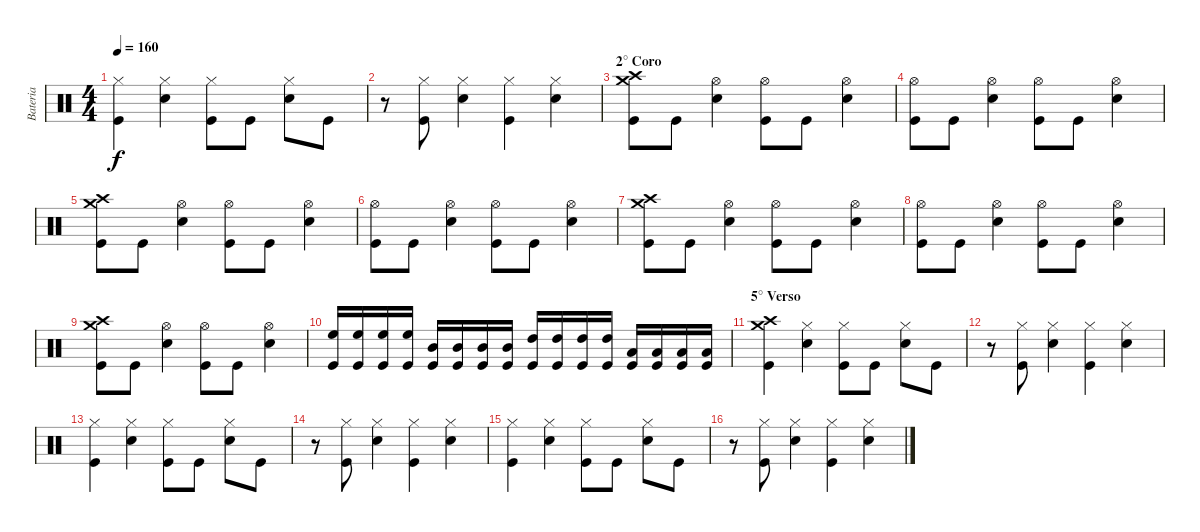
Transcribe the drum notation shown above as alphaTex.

\track ("Bateria" "Bateria") {instrument percussion}
\staff {score}
\articulation defaults
\ts (4 4)
\tempo 160
\clef neutral
\ks c
("Hi-Hat (closed)" "Kick (hit)").4{dy f} ("Hi-Hat (closed)" "Snare (hit) 2").4 ("Hi-Hat (closed)" "Kick (hit)").8 "Kick (hit)".8 ("Hi-Hat (closed)" "Snare (hit) 2").8 "Kick (hit)".8 |
r.8 ("Hi-Hat (closed)" "Kick (hit)").8 ("Hi-Hat (closed)" "Snare (hit) 2").4 ("Hi-Hat (closed)" "Kick (hit)").4 ("Hi-Hat (closed)" "Snare (hit) 2").4 |
\section ("" "2° Coro")
("Crash medium (hit)" "Crash high (hit)" "Kick (hit)").8 "Kick (hit)".8 ("Hi-Hat (open)" "Snare (hit) 2").4 ("Hi-Hat (open)" "Kick (hit)").8 "Kick (hit)".8 ("Hi-Hat (open)" "Snare (hit) 2").4 |
("Hi-Hat (open)" "Kick (hit)").8 "Kick (hit)".8 ("Hi-Hat (open)" "Snare (hit) 2").4 ("Hi-Hat (open)" "Kick (hit)").8 "Kick (hit)".8 ("Hi-Hat (open)" "Snare (hit) 2").4 |
("Crash medium (hit)" "Crash high (hit)" "Kick (hit)").8 "Kick (hit)".8 ("Hi-Hat (open)" "Snare (hit) 2").4 ("Hi-Hat (open)" "Kick (hit)").8 "Kick (hit)".8 ("Hi-Hat (open)" "Snare (hit) 2").4 |
("Hi-Hat (open)" "Kick (hit)").8 "Kick (hit)".8 ("Hi-Hat (open)" "Snare (hit) 2").4 ("Hi-Hat (open)" "Kick (hit)").8 "Kick (hit)".8 ("Hi-Hat (open)" "Snare (hit) 2").4 |
("Crash medium (hit)" "Crash high (hit)" "Kick (hit)").8 "Kick (hit)".8 ("Hi-Hat (open)" "Snare (hit) 2").4 ("Hi-Hat (open)" "Kick (hit)").8 "Kick (hit)".8 ("Hi-Hat (open)" "Snare (hit) 2").4 |
("Hi-Hat (open)" "Kick (hit)").8 "Kick (hit)".8 ("Hi-Hat (open)" "Snare (hit) 2").4 ("Hi-Hat (open)" "Kick (hit)").8 "Kick (hit)".8 ("Hi-Hat (open)" "Snare (hit) 2").4 |
("Crash medium (hit)" "Crash high (hit)" "Kick (hit)").8 "Kick (hit)".8 ("Hi-Hat (open)" "Snare (hit) 2").4 ("Hi-Hat (open)" "Kick (hit)").8 "Kick (hit)".8 ("Hi-Hat (open)" "Snare (hit) 2").4 |
("High Floor Tom (hit)" "Kick (hit)").16 ("High Floor Tom (hit)" "Kick (hit)").16 ("High Floor Tom (hit)" "Kick (hit)").16 ("High Floor Tom (hit)" "Kick (hit)").16 ("Mid Tom (hit)" "Kick (hit)").16 ("Mid Tom (hit)" "Kick (hit)").16 ("Mid Tom (hit)" "Kick (hit)").16 ("Mid Tom (hit)" "Kick (hit)").16 ("High Tom (hit)" "Kick (hit)").16 ("High Tom (hit)" "Kick (hit)").16 ("High Tom (hit)" "Kick (hit)").16 ("High Tom (hit)" "Kick (hit)").16 ("Low Tom (hit)" "Kick (hit)").16 ("Low Tom (hit)" "Kick (hit)").16 ("Low Tom (hit)" "Kick (hit)").16 ("Low Tom (hit)" "Kick (hit)").16 |
\section ("" "5° Verso")
("Crash medium (hit)" "Crash high (hit)" "Kick (hit)").4 ("Hi-Hat (closed)" "Snare (hit) 2").4 ("Hi-Hat (closed)" "Kick (hit)").8 "Kick (hit)".8 ("Hi-Hat (closed)" "Snare (hit) 2").8 "Kick (hit)".8 |
r.8 ("Hi-Hat (closed)" "Kick (hit)").8 ("Hi-Hat (closed)" "Snare (hit) 2").4 ("Hi-Hat (closed)" "Kick (hit)").4 ("Hi-Hat (closed)" "Snare (hit) 2").4 |
("Hi-Hat (closed)" "Kick (hit)").4 ("Hi-Hat (closed)" "Snare (hit) 2").4 ("Hi-Hat (closed)" "Kick (hit)").8 "Kick (hit)".8 ("Hi-Hat (closed)" "Snare (hit) 2").8 "Kick (hit)".8 |
r.8 ("Hi-Hat (closed)" "Kick (hit)").8 ("Hi-Hat (closed)" "Snare (hit) 2").4 ("Hi-Hat (closed)" "Kick (hit)").4 ("Hi-Hat (closed)" "Snare (hit) 2").4 |
("Hi-Hat (closed)" "Kick (hit)").4 ("Hi-Hat (closed)" "Snare (hit) 2").4 ("Hi-Hat (closed)" "Kick (hit)").8 "Kick (hit)".8 ("Hi-Hat (closed)" "Snare (hit) 2").8 "Kick (hit)".8 |
r.8 ("Hi-Hat (closed)" "Kick (hit)").8 ("Hi-Hat (closed)" "Snare (hit) 2").4 ("Hi-Hat (closed)" "Kick (hit)").4 ("Hi-Hat (closed)" "Snare (hit) 2").4
